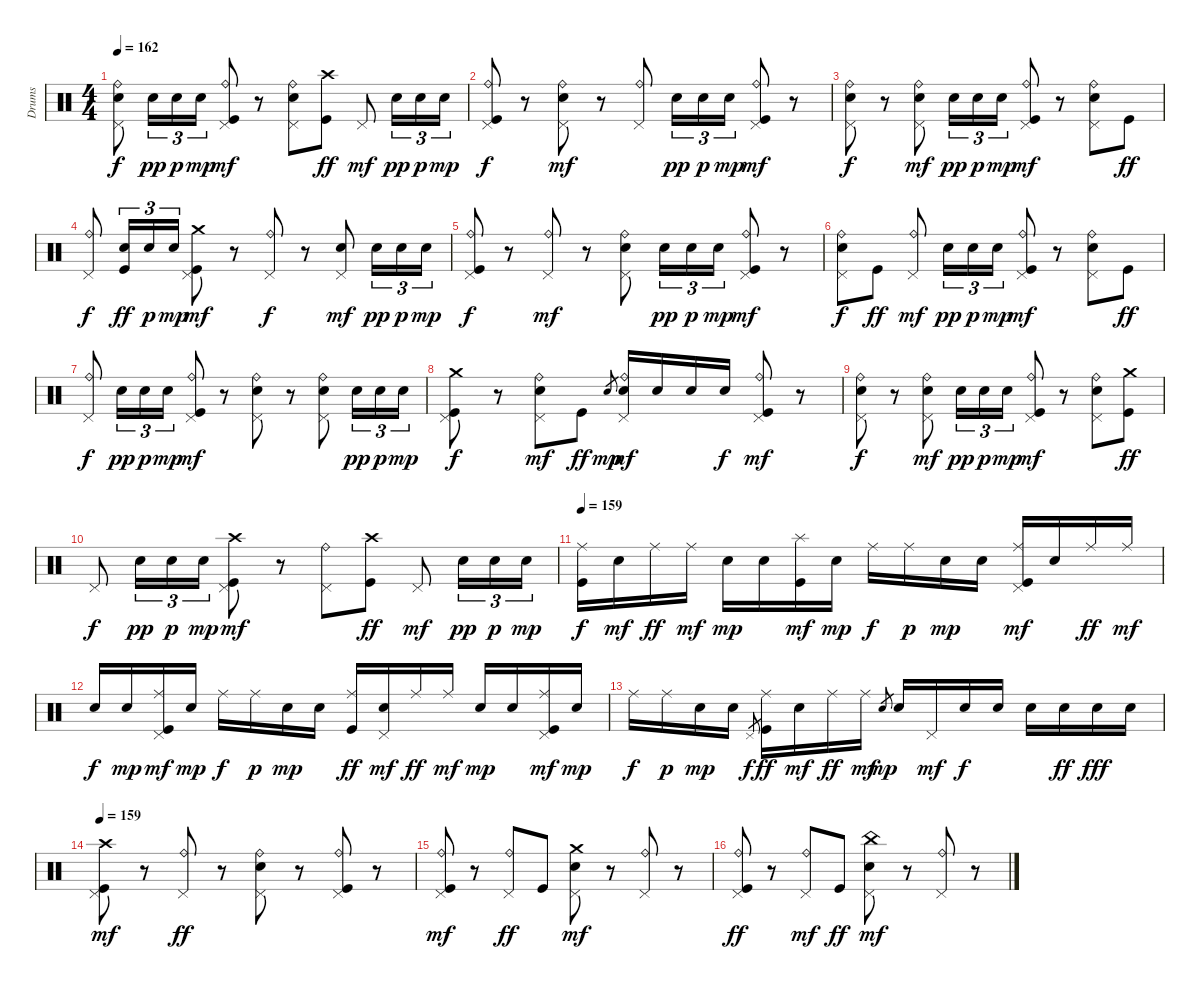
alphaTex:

\track ("Drums" "Drums") {instrument percussion}
\staff {score}
\articulation defaults
\ts (4 4)
\tempo 162
\clef neutral
\ks c
("Electric Snare (hit)" "Pedal Hi-Hat (hit)" "Ride (bell)").8{dy f} "Snare (hit) 2".16{tu (3 2) dy pp} "Snare (hit) 2".16{tu (3 2) dy p} "Snare (hit) 2".16{tu (3 2) dy mp} ("Kick (hit)" "Pedal Hi-Hat (hit)" "Ride (bell)").8{dy mf} r.8 ("Electric Snare (hit)" "Pedal Hi-Hat (hit)" "Ride (bell)").8 ("Kick (hit)" "Crash high (hit)").8{dy ff} "Pedal Hi-Hat (hit)".8{dy mf} "Snare (hit) 2".16{tu (3 2) dy pp} "Snare (hit) 2".16{tu (3 2) dy p} "Snare (hit) 2".16{tu (3 2) dy mp} |
("Kick (hit)" "Pedal Hi-Hat (hit)" "Ride (bell)").8{dy f} r.8 ("Electric Snare (hit)" "Pedal Hi-Hat (hit)" "Ride (bell)").8{dy mf} r.8 ("Pedal Hi-Hat (hit)" "Ride (bell)").8 "Snare (hit) 2".16{tu (3 2) dy pp} "Snare (hit) 2".16{tu (3 2) dy p} "Snare (hit) 2".16{tu (3 2) dy mp} ("Kick (hit)" "Pedal Hi-Hat (hit)" "Ride (bell)").8{dy mf} r.8 |
("Electric Snare (hit)" "Pedal Hi-Hat (hit)" "Ride (bell)").8{dy f} r.8 ("Electric Snare (hit)" "Pedal Hi-Hat (hit)" "Ride (bell)").8{dy mf} "Snare (hit) 2".16{tu (3 2) dy pp} "Snare (hit) 2".16{tu (3 2) dy p} "Snare (hit) 2".16{tu (3 2) dy mp} ("Kick (hit)" "Pedal Hi-Hat (hit)" "Ride (bell)").8{dy mf} r.8 ("Electric Snare (hit)" "Pedal Hi-Hat (hit)" "Ride (bell)").8 "Kick (hit)".8{dy ff} |
("Pedal Hi-Hat (hit)" "Ride (bell)").8{dy f} ("Snare (hit) 2" "Kick (hit)").16{tu (3 2) dy ff} "Snare (hit) 2".16{tu (3 2) dy p} "Snare (hit) 2".16{tu (3 2) dy mp} ("Kick (hit)" "Pedal Hi-Hat (hit)" "Crash medium (hit)").8{dy mf} r.8 ("Pedal Hi-Hat (hit)" "Ride (bell)").8{dy f} r.8 ("Electric Snare (hit)" "Pedal Hi-Hat (hit)").8{dy mf} "Snare (hit) 2".16{tu (3 2) dy pp} "Snare (hit) 2".16{tu (3 2) dy p} "Snare (hit) 2".16{tu (3 2) dy mp} |
("Kick (hit)" "Pedal Hi-Hat (hit)" "Ride (bell)").8{dy f} r.8 ("Pedal Hi-Hat (hit)" "Ride (bell)").8{dy mf} r.8 ("Electric Snare (hit)" "Pedal Hi-Hat (hit)" "Ride (bell)").8 "Snare (hit) 2".16{tu (3 2) dy pp} "Snare (hit) 2".16{tu (3 2) dy p} "Snare (hit) 2".16{tu (3 2) dy mp} ("Kick (hit)" "Pedal Hi-Hat (hit)" "Ride (bell)").8{dy mf} r.8 |
("Electric Snare (hit)" "Pedal Hi-Hat (hit)" "Ride (bell)").8{dy f} "Kick (hit)".8{dy ff} ("Pedal Hi-Hat (hit)" "Ride (bell)").8{dy mf} "Snare (hit) 2".16{tu (3 2) dy pp} "Snare (hit) 2".16{tu (3 2) dy p} "Snare (hit) 2".16{tu (3 2) dy mp} ("Kick (hit)" "Pedal Hi-Hat (hit)" "Ride (bell)").8{dy mf} r.8 ("Electric Snare (hit)" "Pedal Hi-Hat (hit)" "Ride (bell)").8 "Kick (hit)".8{dy ff} |
("Pedal Hi-Hat (hit)" "Ride (bell)").8{dy f} "Snare (hit) 2".16{tu (3 2) dy pp} "Snare (hit) 2".16{tu (3 2) dy p} "Snare (hit) 2".16{tu (3 2) dy mp} ("Kick (hit)" "Pedal Hi-Hat (hit)" "Ride (bell)").8{dy mf} r.8 ("Electric Snare (hit)" "Pedal Hi-Hat (hit)" "Ride (bell)").8 r.8 ("Electric Snare (hit)" "Pedal Hi-Hat (hit)" "Ride (bell)").8 "Snare (hit) 2".16{tu (3 2) dy pp} "Snare (hit) 2".16{tu (3 2) dy p} "Snare (hit) 2".16{tu (3 2) dy mp} |
("Kick (hit)" "Pedal Hi-Hat (hit)" "Crash medium (hit)").8{dy f} r.8 ("Electric Snare (hit)" "Pedal Hi-Hat (hit)" "Ride (bell)").8{dy mf} "Kick (hit)".8{dy ff} "Snare (hit) 2".8{gr dy mp} ("Snare (hit) 2" "Pedal Hi-Hat (hit)" "Ride (bell)").16{dy mf} "Snare (hit) 2".16 "Snare (hit) 2".16 "Snare (hit) 2".16{dy f} ("Kick (hit)" "Pedal Hi-Hat (hit)" "Ride (bell)").8{dy mf} r.8 |
("Electric Snare (hit)" "Pedal Hi-Hat (hit)" "Ride (bell)").8{dy f} r.8 ("Electric Snare (hit)" "Pedal Hi-Hat (hit)" "Ride (bell)").8{dy mf} "Snare (hit) 2".16{tu (3 2) dy pp} "Snare (hit) 2".16{tu (3 2) dy p} "Snare (hit) 2".16{tu (3 2) dy mp} ("Kick (hit)" "Pedal Hi-Hat (hit)" "Ride (bell)").8{dy mf} r.8 ("Electric Snare (hit)" "Pedal Hi-Hat (hit)" "Ride (bell)").8 ("Kick (hit)" "Crash medium (hit)").8{dy ff} |
"Pedal Hi-Hat (hit)".8{dy f} "Snare (hit) 2".16{tu (3 2) dy pp} "Snare (hit) 2".16{tu (3 2) dy p} "Snare (hit) 2".16{tu (3 2) dy mp} ("Kick (hit)" "Pedal Hi-Hat (hit)" "Crash high (hit)").8{dy mf} r.8 ("Pedal Hi-Hat (hit)" "Ride (bell)").8 ("Kick (hit)" "Crash high (hit)").8{dy ff} "Pedal Hi-Hat (hit)".8{dy mf} "Snare (hit) 2".16{tu (3 2) dy pp} "Snare (hit) 2".16{tu (3 2) dy p} "Snare (hit) 2".16{tu (3 2) dy mp} |
\tempo 159
("Kick (hit)" "Ride (middle)").16{dy f} "Snare (hit) 2".16{dy mf} "Ride (middle)".16{dy ff} "Ride (middle)".16{dy mf} "Snare (hit) 2".16{dy mp} "Snare (hit) 2".16 ("Kick (hit)" "Splash (hit)").16{dy mf} "Snare (hit) 2".16{dy mp} "Ride (middle)".16{dy f} "Ride (middle)".16{dy p} "Snare (hit) 2".16{dy mp} "Snare (hit) 2".16 ("Kick (hit)" "Pedal Hi-Hat (hit)" "Ride (middle)").16{dy mf} "Snare (hit) 2".16 "Ride (middle)".16{dy ff} "Ride (middle)".16{dy mf} |
"Snare (hit) 2".16{dy f} "Snare (hit) 2".16{dy mp} ("Kick (hit)" "Pedal Hi-Hat (hit)" "Ride (middle)").16{dy mf} "Snare (hit) 2".16{dy mp} "Ride (middle)".16{dy f} "Ride (middle)".16{dy p} "Snare (hit) 2".16{dy mp} "Snare (hit) 2".16 ("Kick (hit)" "Ride (middle)").16{dy ff} ("Snare (hit) 2" "Pedal Hi-Hat (hit)").16{dy mf} "Ride (middle)".16{dy ff} "Ride (middle)".16{dy mf} "Snare (hit) 2".16{dy mp} "Snare (hit) 2".16 ("Kick (hit)" "Pedal Hi-Hat (hit)" "Ride (middle)").16{dy mf} "Snare (hit) 2".16{dy mp} |
"Ride (middle)".16{dy f} "Ride (middle)".16{dy p} "Snare (hit) 2".16{dy mp} "Snare (hit) 2".16 "Pedal Hi-Hat (hit)".8{gr dy f} ("Kick (hit)" "Ride (middle)").16{dy ff} "Snare (hit) 2".16{dy mf} "Ride (middle)".16{dy ff} "Ride (middle)".16{dy mf} "Snare (hit) 2".8{gr dy mp} "Snare (hit) 2".16 "Pedal Hi-Hat (hit)".16{dy mf} "Electric Snare (hit)".16{dy f} "Electric Snare (hit)".16 "Electric Snare (hit)".16 "Electric Snare (hit)".16{dy ff} "Electric Snare (hit)".16{dy fff} "Electric Snare (hit)".16 |
\tempo 159
("Kick (hit)" "Pedal Hi-Hat (hit)" "Crash high (hit)").8{dy mf} r.8 ("Pedal Hi-Hat (hit)" "Ride (bell)").8{dy ff} r.8 ("Electric Snare (hit)" "Pedal Hi-Hat (hit)" "Ride (bell)").8 r.8 ("Kick (hit)" "Pedal Hi-Hat (hit)" "Ride (bell)").8 r.8 |
("Kick (hit)" "Pedal Hi-Hat (hit)" "Ride (bell)").8{dy mf} r.8 ("Pedal Hi-Hat (hit)" "Ride (bell)").8{dy ff} "Kick (hit)".8 ("Electric Snare (hit)" "Pedal Hi-Hat (hit)" "Crash medium (hit)").8{dy mf} r.8 ("Pedal Hi-Hat (hit)" "Ride (bell)").8 r.8 |
("Kick (hit)" "Pedal Hi-Hat (hit)" "Ride (bell)").8{dy ff} r.8 ("Pedal Hi-Hat (hit)" "Ride (bell)").8{dy mf} "Kick (hit)".8{dy ff} ("Electric Snare (hit)" "Pedal Hi-Hat (hit)" "China (hit)").8{dy mf} r.8 ("Pedal Hi-Hat (hit)" "Ride (bell)").8 r.8
